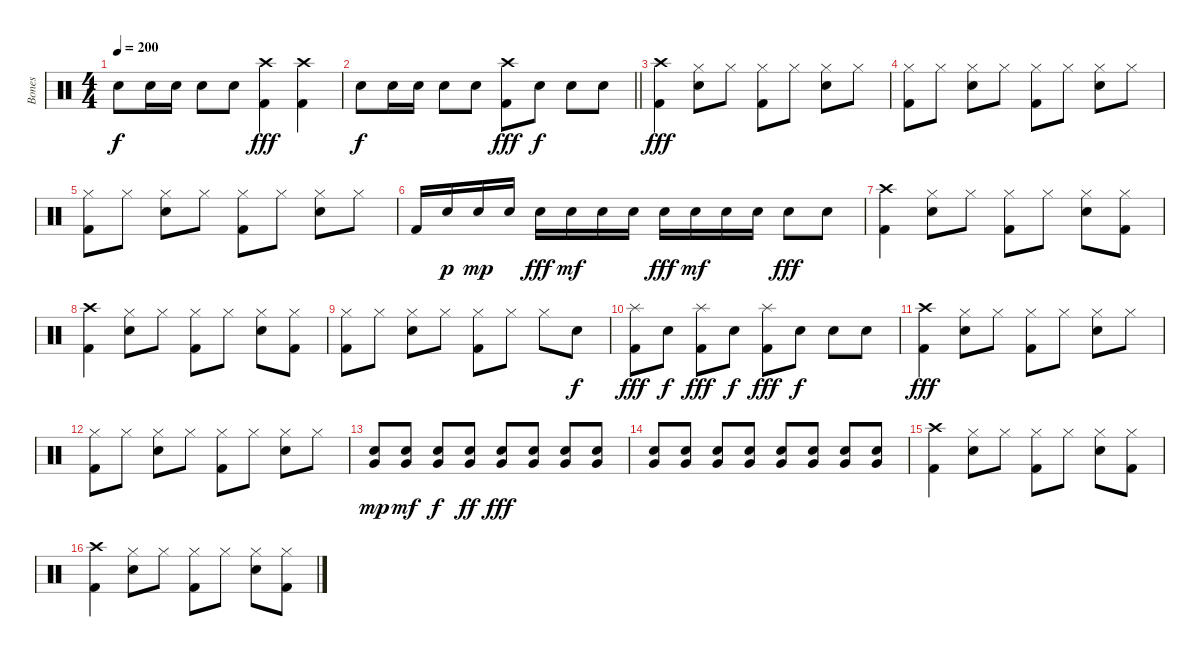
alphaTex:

\track ("Bones " "Bones ") {instrument percussion}
\staff {score}
\articulation defaults
\ts (4 4)
\tempo 200
\clef neutral
\ks c "Snare (hit) 2".8{dy f} "Snare (hit) 2".16 "Snare (hit) 2".16 "Snare (hit) 2".8 "Snare (hit) 2".8
("Crash high (hit)" "Kick (hit) 2").4{dy fff} ("Crash high (hit)" "Kick (hit) 2").4 |
\barLineRight lightlight "Snare (hit) 2".8{dy f} "Snare (hit) 2".16 "Snare (hit) 2".16 "Snare (hit) 2".8 "Snare (hit) 2".8
("Crash high (hit)" "Kick (hit) 2").8{dy fff} "Snare (hit) 2".8{dy f} "Snare (hit) 2".8 "Snare (hit) 2".8 |
("Crash high (hit)" "Kick (hit) 2").4{dy fff} ("Hi-Hat (closed)" "Snare (hit) 2").8 "Hi-Hat (closed)".8 ("Hi-Hat (closed)" "Kick (hit) 2").8 "Hi-Hat (closed)".8 ("Hi-Hat (closed)" "Snare (hit) 2").8 "Hi-Hat (closed)".8 |
("Hi-Hat (closed)" "Kick (hit) 2").8 "Hi-Hat (closed)".8 ("Hi-Hat (closed)" "Snare (hit) 2").8 "Hi-Hat (closed)".8 ("Hi-Hat (closed)" "Kick (hit) 2").8 "Hi-Hat (closed)".8 ("Hi-Hat (closed)" "Snare (hit) 2").8 "Hi-Hat (closed)".8 |
("Hi-Hat (closed)" "Kick (hit) 2").8 "Hi-Hat (closed)".8 ("Hi-Hat (closed)" "Snare (hit) 2").8 "Hi-Hat (closed)".8 ("Hi-Hat (closed)" "Kick (hit) 2").8 "Hi-Hat (closed)".8 ("Hi-Hat (closed)" "Snare (hit) 2").8 "Hi-Hat (closed)".8 |
"Kick (hit) 2".16 "Snare (hit) 2".16{dy p} "Snare (hit) 2".16{dy mp} "Snare (hit) 2".16 "Snare (hit) 2".16{dy fff} "Snare (hit) 2".16{dy mf} "Snare (hit) 2".16 "Snare (hit) 2".16 "Snare (hit) 2".16{dy fff} "Snare (hit) 2".16{dy mf} "Snare (hit) 2".16 "Snare (hit) 2".16 "Snare (hit) 2".8{dy fff} "Snare (hit) 2".8 |
("Crash high (hit)" "Kick (hit) 2").4 ("Hi-Hat (closed)" "Snare (hit) 2").8 "Hi-Hat (closed)".8 ("Hi-Hat (closed)" "Kick (hit) 2").8 "Hi-Hat (closed)".8 ("Hi-Hat (closed)" "Snare (hit) 2").8 ("Hi-Hat (closed)" "Kick (hit) 2").8 |
("Crash high (hit)" "Kick (hit) 2").4 ("Hi-Hat (closed)" "Snare (hit) 2").8 "Hi-Hat (closed)".8 ("Hi-Hat (closed)" "Kick (hit) 2").8 "Hi-Hat (closed)".8 ("Hi-Hat (closed)" "Snare (hit) 2").8 ("Hi-Hat (closed)" "Kick (hit) 2").8 |
("Hi-Hat (closed)" "Kick (hit) 2").8 "Hi-Hat (closed)".8 ("Hi-Hat (closed)" "Snare (hit) 2").8 "Hi-Hat (closed)".8 ("Hi-Hat (closed)" "Kick (hit) 2").8 "Hi-Hat (closed)".8 "Hi-Hat (closed)".8 "Snare (hit) 2".8{dy f} |
("Splash (hit)" "Kick (hit) 2").8{dy fff} "Snare (hit) 2".8{dy f} ("Splash (hit)" "Kick (hit) 2").8{dy fff} "Snare (hit) 2".8{dy f} ("Splash (hit)" "Kick (hit) 2").8{dy fff} "Snare (hit) 2".8{dy f} "Snare (hit) 2".8 "Snare (hit) 2".8 |
("Crash high (hit)" "Kick (hit) 2").4{dy fff} ("Hi-Hat (closed)" "Snare (hit) 2").8 "Hi-Hat (closed)".8 ("Hi-Hat (closed)" "Kick (hit) 2").8 "Hi-Hat (closed)".8 ("Hi-Hat (closed)" "Snare (hit) 2").8 "Hi-Hat (closed)".8 |
("Hi-Hat (closed)" "Kick (hit) 2").8 "Hi-Hat (closed)".8 ("Hi-Hat (closed)" "Snare (hit) 2").8 "Hi-Hat (closed)".8 ("Hi-Hat (closed)" "Kick (hit) 2").8 "Hi-Hat (closed)".8 ("Hi-Hat (closed)" "Snare (hit) 2").8 "Hi-Hat (closed)".8 |
("Very Low Tom (hit)" "Snare (hit) 2").8{dy mp} ("Very Low Tom (hit)" "Snare (hit) 2").8{dy mf} ("Very Low Tom (hit)" "Snare (hit) 2").8{dy f} ("Very Low Tom (hit)" "Snare (hit) 2").8{dy ff} ("Very Low Tom (hit)" "Snare (hit) 2").8{dy fff} ("Very Low Tom (hit)" "Snare (hit) 2").8 ("Very Low Tom (hit)" "Snare (hit) 2").8 ("Very Low Tom (hit)" "Snare (hit) 2").8 |
("Very Low Tom (hit)" "Snare (hit) 2").8 ("Very Low Tom (hit)" "Snare (hit) 2").8 ("Very Low Tom (hit)" "Snare (hit) 2").8 ("Very Low Tom (hit)" "Snare (hit) 2").8 ("Very Low Tom (hit)" "Snare (hit) 2").8 ("Very Low Tom (hit)" "Snare (hit) 2").8 ("Very Low Tom (hit)" "Snare (hit) 2").8 ("Very Low Tom (hit)" "Snare (hit) 2").8 |
("Crash high (hit)" "Kick (hit) 2").4 ("Hi-Hat (closed)" "Snare (hit) 2").8 "Hi-Hat (closed)".8 ("Hi-Hat (closed)" "Kick (hit) 2").8 "Hi-Hat (closed)".8 ("Hi-Hat (closed)" "Snare (hit) 2").8 ("Hi-Hat (closed)" "Kick (hit) 2").8 |
("Crash high (hit)" "Kick (hit) 2").4 ("Hi-Hat (closed)" "Snare (hit) 2").8 "Hi-Hat (closed)".8 ("Hi-Hat (closed)" "Kick (hit) 2").8 "Hi-Hat (closed)".8 ("Hi-Hat (closed)" "Snare (hit) 2").8 ("Hi-Hat (closed)" "Kick (hit) 2").8
